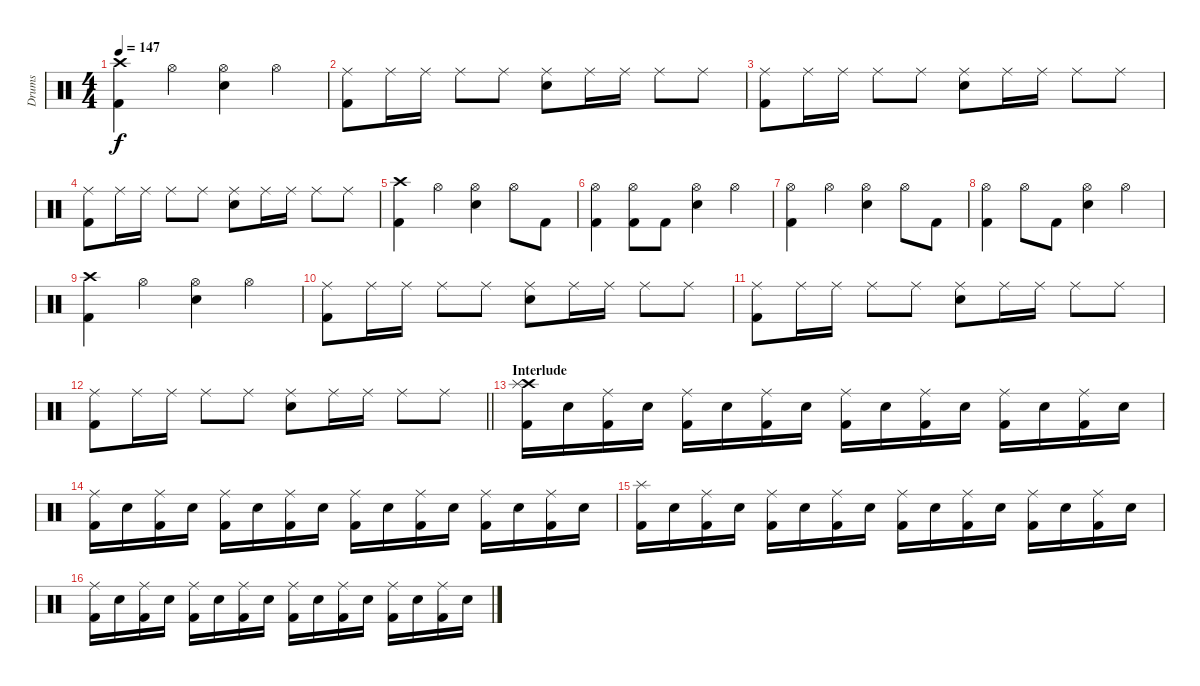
\track ("Drums" "Drums") {instrument percussion}
\staff {score}
\articulation defaults
\ts (4 4)
\tempo 147
\clef neutral
\ks c
("Crash high (hit)" "Kick (hit) 2").4{dy f} "Hi-Hat (open)".4 ("Hi-Hat (open)" "Electric Snare (hit)").4 "Hi-Hat (open)".4 |
("Ride (middle)" "Kick (hit) 2").8 "Ride (middle)".16 "Ride (middle)".16 "Ride (middle)".8 "Ride (middle)".8 ("Ride (middle)" "Electric Snare (hit)").8 "Ride (middle)".16 "Ride (middle)".16 "Ride (middle)".8 "Ride (middle)".8 |
("Ride (middle)" "Kick (hit) 2").8 "Ride (middle)".16 "Ride (middle)".16 "Ride (middle)".8 "Ride (middle)".8 ("Ride (middle)" "Electric Snare (hit)").8 "Ride (middle)".16 "Ride (middle)".16 "Ride (middle)".8 "Ride (middle)".8 |
("Ride (middle)" "Kick (hit) 2").8 "Ride (middle)".16 "Ride (middle)".16 "Ride (middle)".8 "Ride (middle)".8 ("Ride (middle)" "Electric Snare (hit)").8 "Ride (middle)".16 "Ride (middle)".16 "Ride (middle)".8 "Ride (middle)".8 |
("Crash high (hit)" "Kick (hit) 2").4 "Hi-Hat (open)".4 ("Hi-Hat (open)" "Electric Snare (hit)").4 "Hi-Hat (open)".8 "Kick (hit) 2".8 |
("Hi-Hat (open)" "Kick (hit) 2").4 ("Hi-Hat (open)" "Kick (hit) 2").8 "Kick (hit) 2".8 ("Hi-Hat (open)" "Electric Snare (hit)").4 "Hi-Hat (open)".4 |
("Hi-Hat (open)" "Kick (hit) 2").4 "Hi-Hat (open)".4 ("Hi-Hat (open)" "Electric Snare (hit)").4 "Hi-Hat (open)".8 "Kick (hit) 2".8 |
("Hi-Hat (open)" "Kick (hit) 2").4 "Hi-Hat (open)".8 "Kick (hit) 2".8 ("Hi-Hat (open)" "Electric Snare (hit)").4 "Hi-Hat (open)".4 |
("Crash high (hit)" "Kick (hit) 2").4 "Hi-Hat (open)".4 ("Hi-Hat (open)" "Electric Snare (hit)").4 "Hi-Hat (open)".4 |
("Ride (middle)" "Kick (hit) 2").8 "Ride (middle)".16 "Ride (middle)".16 "Ride (middle)".8 "Ride (middle)".8 ("Ride (middle)" "Electric Snare (hit)").8 "Ride (middle)".16 "Ride (middle)".16 "Ride (middle)".8 "Ride (middle)".8 |
("Ride (middle)" "Kick (hit) 2").8 "Ride (middle)".16 "Ride (middle)".16 "Ride (middle)".8 "Ride (middle)".8 ("Ride (middle)" "Electric Snare (hit)").8 "Ride (middle)".16 "Ride (middle)".16 "Ride (middle)".8 "Ride (middle)".8 |
\barLineRight lightlight
("Ride (middle)" "Kick (hit) 2").8 "Ride (middle)".16 "Ride (middle)".16 "Ride (middle)".8 "Ride (middle)".8 ("Ride (middle)" "Electric Snare (hit)").8 "Ride (middle)".16 "Ride (middle)".16 "Ride (middle)".8 "Ride (middle)".8 |
\section ("" "Interlude")
("Crash high (hit)" "Splash (hit)" "Kick (hit) 2").16 "Electric Snare (hit)".16 ("Ride (middle)" "Kick (hit) 2").16 "Electric Snare (hit)".16 ("Ride (middle)" "Kick (hit) 2").16 "Electric Snare (hit)".16 ("Ride (middle)" "Kick (hit) 2").16 "Electric Snare (hit)".16 ("Ride (middle)" "Kick (hit) 2").16 "Electric Snare (hit)".16 ("Ride (middle)" "Kick (hit) 2").16 "Electric Snare (hit)".16 ("Ride (middle)" "Kick (hit) 2").16 "Electric Snare (hit)".16 ("Ride (middle)" "Kick (hit) 2").16 "Electric Snare (hit)".16 |
("Ride (middle)" "Kick (hit) 2").16 "Electric Snare (hit)".16 ("Ride (middle)" "Kick (hit) 2").16 "Electric Snare (hit)".16 ("Ride (middle)" "Kick (hit) 2").16 "Electric Snare (hit)".16 ("Ride (middle)" "Kick (hit) 2").16 "Electric Snare (hit)".16 ("Ride (middle)" "Kick (hit) 2").16 "Electric Snare (hit)".16 ("Ride (middle)" "Kick (hit) 2").16 "Electric Snare (hit)".16 ("Ride (middle)" "Kick (hit) 2").16 "Electric Snare (hit)".16 ("Ride (middle)" "Kick (hit) 2").16 "Electric Snare (hit)".16 |
("Splash (hit)" "Kick (hit) 2").16 "Electric Snare (hit)".16 ("Ride (middle)" "Kick (hit) 2").16 "Electric Snare (hit)".16 ("Ride (middle)" "Kick (hit) 2").16 "Electric Snare (hit)".16 ("Ride (middle)" "Kick (hit) 2").16 "Electric Snare (hit)".16 ("Ride (middle)" "Kick (hit) 2").16 "Electric Snare (hit)".16 ("Ride (middle)" "Kick (hit) 2").16 "Electric Snare (hit)".16 ("Ride (middle)" "Kick (hit) 2").16 "Electric Snare (hit)".16 ("Ride (middle)" "Kick (hit) 2").16 "Electric Snare (hit)".16 |
("Ride (middle)" "Kick (hit) 2").16 "Electric Snare (hit)".16 ("Ride (middle)" "Kick (hit) 2").16 "Electric Snare (hit)".16 ("Ride (middle)" "Kick (hit) 2").16 "Electric Snare (hit)".16 ("Ride (middle)" "Kick (hit) 2").16 "Electric Snare (hit)".16 ("Ride (middle)" "Kick (hit) 2").16 "Electric Snare (hit)".16 ("Ride (middle)" "Kick (hit) 2").16 "Electric Snare (hit)".16 ("Ride (middle)" "Kick (hit) 2").16 "Electric Snare (hit)".16 ("Ride (middle)" "Kick (hit) 2").16 "Electric Snare (hit)".16
